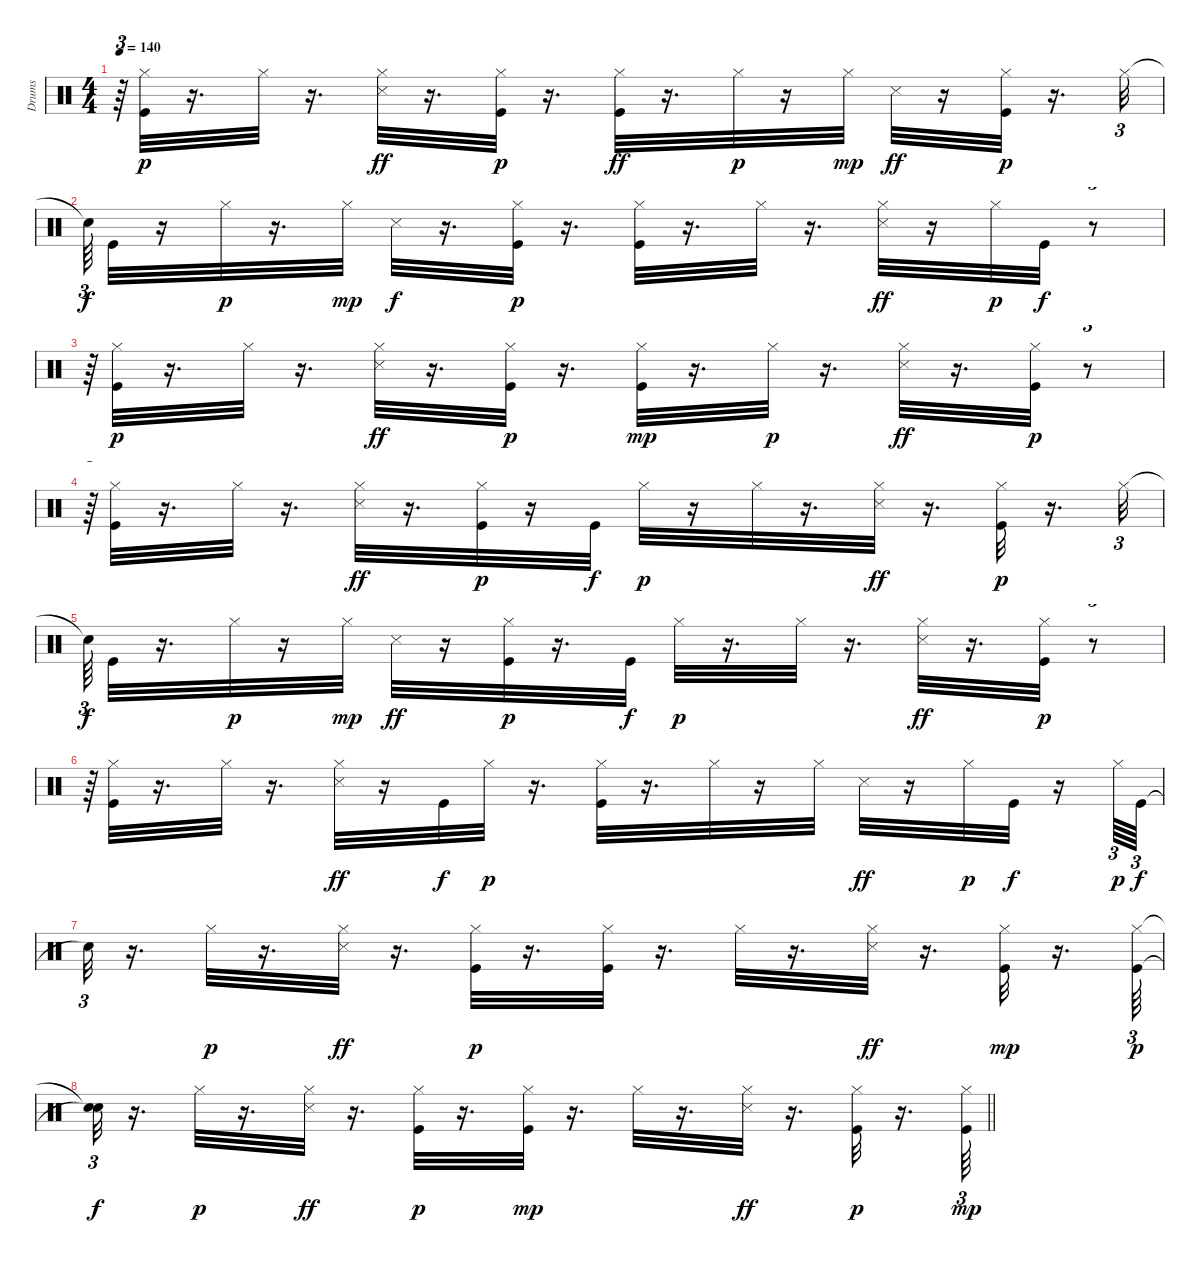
\track ("Drums" "Drums") {instrument percussion}
\staff {score}
\articulation defaults
\ts (4 4)
\tempo 140
\clef neutral
\ks c
r.64{tu (3 2) dy p} ("Hi-Hat (closed)" "Kick (hit)").32 r.16{d} "Hi-Hat (closed)".32 r.16{d} ("Hi-Hat (closed)" "Snare (side stick) 3").32{dy ff} r.16{d} ("Hi-Hat (closed)" "Kick (hit)").32{dy p} r.16{d} ("Hi-Hat (closed)" "Kick (hit)").32{dy ff} r.16{d} "Hi-Hat (closed)".32{dy p} r.16 "Hi-Hat (closed)".32{dy mp} "Snare (side stick) 3".32{dy ff} r.16 ("Kick (hit)" "Hi-Hat (closed)").32{dy p} r.16{d} "Hi-Hat (closed)".32{tu (3 2)} |
"Snare (hit)"{t}.64{tu (3 2) dy f} "Kick (hit)".32 r.16 "Hi-Hat (closed)".32{dy p} r.16{d} "Hi-Hat (closed)".32{dy mp} "Snare (side stick) 3".32{dy f} r.16{d} ("Kick (hit)" "Hi-Hat (closed)").32{dy p} r.16{d} ("Hi-Hat (closed)" "Kick (hit)").32 r.16{d} "Hi-Hat (closed)".32 r.16{d} ("Hi-Hat (closed)" "Snare (side stick) 3").32{dy ff} r.16 "Hi-Hat (closed)".32{dy p} "Kick (hit)".32{dy f} r.8{tu (3 2)} |
r.64{tu (3 2)} ("Hi-Hat (closed)" "Kick (hit)").32{dy p} r.16{d} "Hi-Hat (closed)".32 r.16{d} ("Hi-Hat (closed)" "Snare (side stick) 3").32{dy ff} r.16{d} ("Hi-Hat (closed)" "Kick (hit)").32{dy p} r.16{d} ("Hi-Hat (closed)" "Kick (hit)").32{dy mp} r.16{d} "Hi-Hat (closed)".32{dy p} r.16{d} ("Hi-Hat (closed)" "Snare (side stick) 3").32{dy ff} r.16{d} ("Hi-Hat (closed)" "Kick (hit)").32{dy p} r.8{tu (3 2)} |
r.64{tu (3 2)} ("Hi-Hat (closed)" "Kick (hit)").32 r.16{d} "Hi-Hat (closed)".32 r.16{d} ("Hi-Hat (closed)" "Snare (side stick) 3").32{dy ff} r.16{d} ("Hi-Hat (closed)" "Kick (hit)").32{dy p} r.16 "Kick (hit)".32{dy f} "Hi-Hat (closed)".32{dy p} r.16 "Hi-Hat (closed)".32 r.16{d} ("Hi-Hat (closed)" "Snare (side stick) 3").32{dy ff} r.16{d} ("Hi-Hat (closed)" "Kick (hit)").32{dy p} r.16{d} "Hi-Hat (closed)".32{tu (3 2)} |
"Snare (hit)"{t}.64{tu (3 2) dy f} "Kick (hit)".32 r.16{d} "Hi-Hat (closed)".32{dy p} r.16 "Hi-Hat (closed)".32{dy mp} "Snare (side stick) 3".32{dy ff} r.16 ("Kick (hit)" "Hi-Hat (closed)").32{dy p} r.16{d} "Kick (hit)".32{dy f} "Hi-Hat (closed)".32{dy p} r.16{d} "Hi-Hat (closed)".32 r.16{d} ("Hi-Hat (closed)" "Snare (side stick) 3").32{dy ff} r.16{d} ("Hi-Hat (closed)" "Kick (hit)").32{dy p} r.8{tu (3 2)} |
r.64{tu (3 2)} ("Hi-Hat (closed)" "Kick (hit)").32 r.16{d} "Hi-Hat (closed)".32 r.16{d} ("Hi-Hat (closed)" "Snare (side stick) 3").32{dy ff} r.16 "Kick (hit)".32{dy f} "Hi-Hat (closed)".32{dy p} r.16{d} ("Hi-Hat (closed)" "Kick (hit)").32 r.16{d} "Hi-Hat (closed)".32 r.16 "Hi-Hat (closed)".32 "Snare (side stick) 3".32{dy ff} r.16 "Hi-Hat (closed)".32{dy p} "Kick (hit)".32{dy f} r.16 "Hi-Hat (closed)".64{tu (3 2) dy p} "Kick (hit)".64{tu (3 2) dy f} |
"Snare (hit)"{t}.32{tu (3 2)} r.16{d} "Hi-Hat (closed)".32{dy p} r.16{d} ("Hi-Hat (closed)" "Snare (side stick) 3").32{dy ff} r.16{d} ("Hi-Hat (closed)" "Kick (hit)").32{dy p} r.16{d} ("Hi-Hat (closed)" "Kick (hit)").32 r.16{d} "Hi-Hat (closed)".32 r.16{d} ("Hi-Hat (closed)" "Snare (side stick) 3").32{dy ff} r.16{d} ("Kick (hit)" "Hi-Hat (closed)").32{dy mp} r.16{d} ("Hi-Hat (closed)" "Kick (hit)").64{tu (3 2) dy p} |
\barLineRight lightlight
("Snare (hit)"{t} "Snare (hit)"{t}).32{tu (3 2) dy f} r.16{d} "Hi-Hat (closed)".32{dy p} r.16{d} ("Hi-Hat (closed)" "Snare (side stick) 3").32{dy ff} r.16{d} ("Kick (hit)" "Hi-Hat (closed)").32{dy p} r.16{d} ("Hi-Hat (closed)" "Kick (hit)").32{dy mp} r.16{d} "Hi-Hat (closed)".32 r.16{d} ("Hi-Hat (closed)" "Snare (side stick) 3").32{dy ff} r.16{d} ("Kick (hit)" "Hi-Hat (closed)").32{dy p} r.16{d} ("Hi-Hat (closed)" "Kick (hit)").64{tu (3 2) dy mp}
